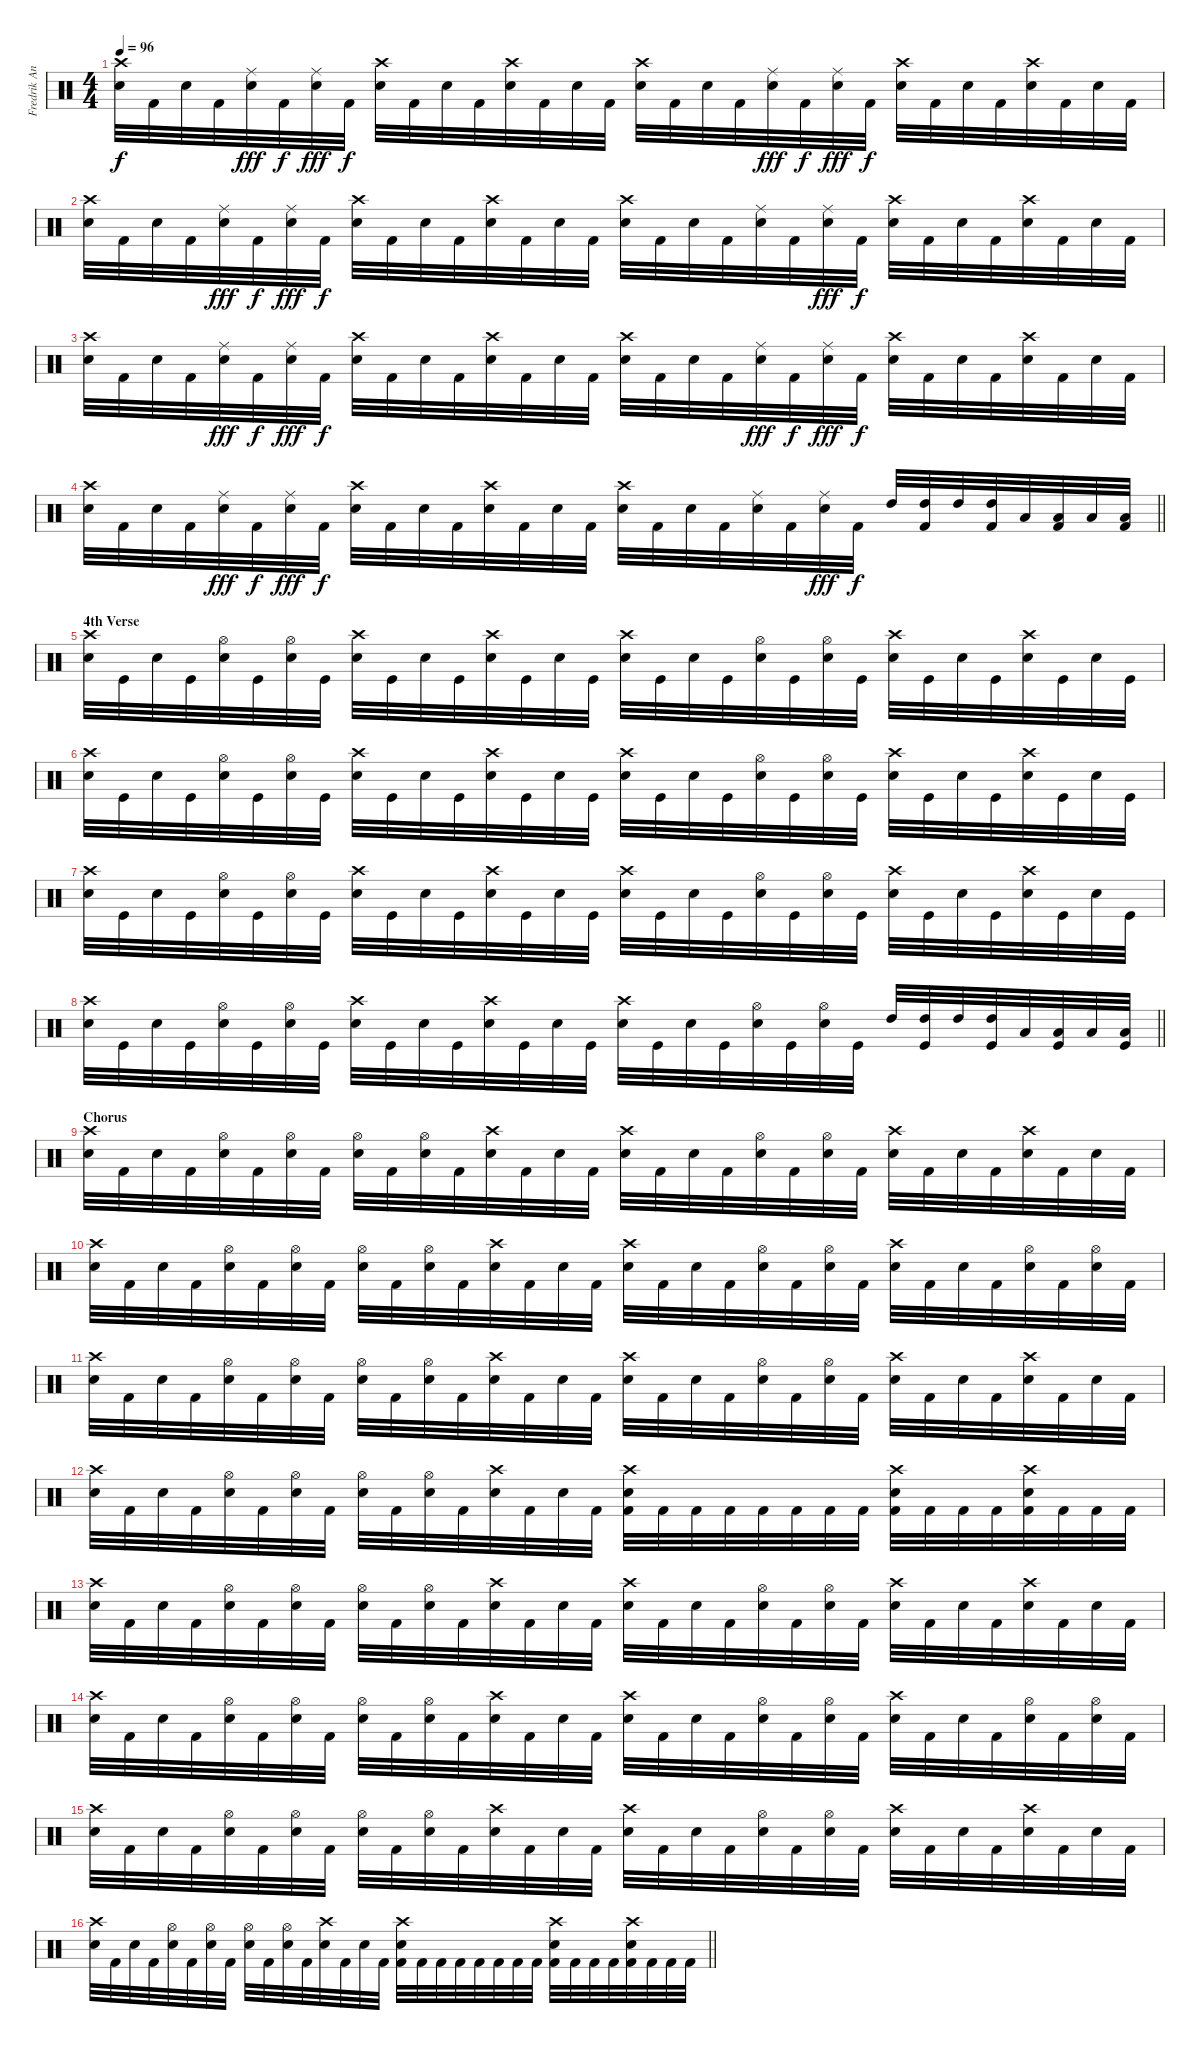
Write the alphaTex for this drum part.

\track ("Fredrik Andersson" "Fredrik An") {instrument percussion}
\staff {score}
\articulation defaults
\ts (4 4)
\tempo 96
\clef neutral
\ks c
("Crash high (hit)" "Snare (hit) 2").32{dy f} "Kick (hit) 2".32 "Snare (hit) 2".32 "Kick (hit) 2".32 ("Ride (middle)" "Snare (hit) 2").32{dy fff} "Kick (hit) 2".32{dy f} ("Ride (middle)" "Snare (hit) 2").32{dy fff} "Kick (hit) 2".32{dy f} ("Crash high (hit)" "Snare (hit) 2").32 "Kick (hit) 2".32 "Snare (hit) 2".32 "Kick (hit) 2".32 ("Crash high (hit)" "Snare (hit) 2").32 "Kick (hit) 2".32 "Snare (hit) 2".32 "Kick (hit) 2".32 ("Crash high (hit)" "Snare (hit) 2").32 "Kick (hit) 2".32 "Snare (hit) 2".32 "Kick (hit) 2".32 ("Ride (middle)" "Snare (hit) 2").32{dy fff} "Kick (hit) 2".32{dy f} ("Ride (middle)" "Snare (hit) 2").32{dy fff} "Kick (hit) 2".32{dy f} ("Crash high (hit)" "Snare (hit) 2").32 "Kick (hit) 2".32 "Snare (hit) 2".32 "Kick (hit) 2".32 ("Crash high (hit)" "Snare (hit) 2").32 "Kick (hit) 2".32 "Snare (hit) 2".32 "Kick (hit) 2".32 |
("Crash high (hit)" "Snare (hit) 2").32 "Kick (hit) 2".32 "Snare (hit) 2".32 "Kick (hit) 2".32 ("Ride (middle)" "Snare (hit) 2").32{dy fff} "Kick (hit) 2".32{dy f} ("Ride (middle)" "Snare (hit) 2").32{dy fff} "Kick (hit) 2".32{dy f} ("Crash high (hit)" "Snare (hit) 2").32 "Kick (hit) 2".32 "Snare (hit) 2".32 "Kick (hit) 2".32 ("Crash high (hit)" "Snare (hit) 2").32 "Kick (hit) 2".32 "Snare (hit) 2".32 "Kick (hit) 2".32 ("Crash high (hit)" "Snare (hit) 2").32 "Kick (hit) 2".32 "Snare (hit) 2".32 "Kick (hit) 2".32 ("Ride (middle)" "Snare (hit) 2").32 "Kick (hit) 2".32 ("Ride (middle)" "Snare (hit) 2").32{dy fff} "Kick (hit) 2".32{dy f} ("Crash high (hit)" "Snare (hit) 2").32 "Kick (hit) 2".32 "Snare (hit) 2".32 "Kick (hit) 2".32 ("Crash high (hit)" "Snare (hit) 2").32 "Kick (hit) 2".32 "Snare (hit) 2".32 "Kick (hit) 2".32 |
("Crash high (hit)" "Snare (hit) 2").32 "Kick (hit) 2".32 "Snare (hit) 2".32 "Kick (hit) 2".32 ("Ride (middle)" "Snare (hit) 2").32{dy fff} "Kick (hit) 2".32{dy f} ("Ride (middle)" "Snare (hit) 2").32{dy fff} "Kick (hit) 2".32{dy f} ("Crash high (hit)" "Snare (hit) 2").32 "Kick (hit) 2".32 "Snare (hit) 2".32 "Kick (hit) 2".32 ("Crash high (hit)" "Snare (hit) 2").32 "Kick (hit) 2".32 "Snare (hit) 2".32 "Kick (hit) 2".32 ("Crash high (hit)" "Snare (hit) 2").32 "Kick (hit) 2".32 "Snare (hit) 2".32 "Kick (hit) 2".32 ("Ride (middle)" "Snare (hit) 2").32{dy fff} "Kick (hit) 2".32{dy f} ("Ride (middle)" "Snare (hit) 2").32{dy fff} "Kick (hit) 2".32{dy f} ("Crash high (hit)" "Snare (hit) 2").32 "Kick (hit) 2".32 "Snare (hit) 2".32 "Kick (hit) 2".32 ("Crash high (hit)" "Snare (hit) 2").32 "Kick (hit) 2".32 "Snare (hit) 2".32 "Kick (hit) 2".32 |
\barLineRight lightlight
("Crash high (hit)" "Snare (hit) 2").32 "Kick (hit) 2".32 "Snare (hit) 2".32 "Kick (hit) 2".32 ("Ride (middle)" "Snare (hit) 2").32{dy fff} "Kick (hit) 2".32{dy f} ("Ride (middle)" "Snare (hit) 2").32{dy fff} "Kick (hit) 2".32{dy f} ("Crash high (hit)" "Snare (hit) 2").32 "Kick (hit) 2".32 "Snare (hit) 2".32 "Kick (hit) 2".32 ("Crash high (hit)" "Snare (hit) 2").32 "Kick (hit) 2".32 "Snare (hit) 2".32 "Kick (hit) 2".32 ("Crash high (hit)" "Snare (hit) 2").32 "Kick (hit) 2".32 "Snare (hit) 2".32 "Kick (hit) 2".32 ("Ride (middle)" "Snare (hit) 2").32 "Kick (hit) 2".32 ("Ride (middle)" "Snare (hit) 2").32{dy fff} "Kick (hit) 2".32{dy f} "High Tom (hit)".32 ("High Tom (hit)" "Kick (hit) 2").32 "High Tom (hit)".32 ("High Tom (hit)" "Kick (hit) 2").32 "Low Tom (hit)".32 ("Low Tom (hit)" "Kick (hit) 2").32 "Low Tom (hit)".32 ("Low Tom (hit)" "Kick (hit) 2").32 |
\section ("" "4th Verse")
("Crash high (hit)" "Snare (hit) 2").32 "Kick (hit)".32 "Snare (hit) 2".32 "Kick (hit)".32 ("Hi-Hat (open)" "Snare (hit) 2").32 "Kick (hit)".32 ("Hi-Hat (open)" "Snare (hit) 2").32 "Kick (hit)".32 ("Crash high (hit)" "Snare (hit) 2").32 "Kick (hit)".32 "Snare (hit) 2".32 "Kick (hit)".32 ("Crash high (hit)" "Snare (hit) 2").32 "Kick (hit)".32 "Snare (hit) 2".32 "Kick (hit)".32 ("Crash high (hit)" "Snare (hit) 2").32 "Kick (hit)".32 "Snare (hit) 2".32 "Kick (hit)".32 ("Hi-Hat (open)" "Snare (hit) 2").32 "Kick (hit)".32 ("Hi-Hat (open)" "Snare (hit) 2").32 "Kick (hit)".32 ("Crash high (hit)" "Snare (hit) 2").32 "Kick (hit)".32 "Snare (hit) 2".32 "Kick (hit)".32 ("Crash high (hit)" "Snare (hit) 2").32 "Kick (hit)".32 "Snare (hit) 2".32 "Kick (hit)".32 |
("Crash high (hit)" "Snare (hit) 2").32 "Kick (hit)".32 "Snare (hit) 2".32 "Kick (hit)".32 ("Hi-Hat (open)" "Snare (hit) 2").32 "Kick (hit)".32 ("Hi-Hat (open)" "Snare (hit) 2").32 "Kick (hit)".32 ("Crash high (hit)" "Snare (hit) 2").32 "Kick (hit)".32 "Snare (hit) 2".32 "Kick (hit)".32 ("Crash high (hit)" "Snare (hit) 2").32 "Kick (hit)".32 "Snare (hit) 2".32 "Kick (hit)".32 ("Crash high (hit)" "Snare (hit) 2").32 "Kick (hit)".32 "Snare (hit) 2".32 "Kick (hit)".32 ("Hi-Hat (open)" "Snare (hit) 2").32 "Kick (hit)".32 ("Hi-Hat (open)" "Snare (hit) 2").32 "Kick (hit)".32 ("Crash high (hit)" "Snare (hit) 2").32 "Kick (hit)".32 "Snare (hit) 2".32 "Kick (hit)".32 ("Crash high (hit)" "Snare (hit) 2").32 "Kick (hit)".32 "Snare (hit) 2".32 "Kick (hit)".32 |
("Crash high (hit)" "Snare (hit) 2").32 "Kick (hit)".32 "Snare (hit) 2".32 "Kick (hit)".32 ("Hi-Hat (open)" "Snare (hit) 2").32 "Kick (hit)".32 ("Hi-Hat (open)" "Snare (hit) 2").32 "Kick (hit)".32 ("Crash high (hit)" "Snare (hit) 2").32 "Kick (hit)".32 "Snare (hit) 2".32 "Kick (hit)".32 ("Crash high (hit)" "Snare (hit) 2").32 "Kick (hit)".32 "Snare (hit) 2".32 "Kick (hit)".32 ("Crash high (hit)" "Snare (hit) 2").32 "Kick (hit)".32 "Snare (hit) 2".32 "Kick (hit)".32 ("Hi-Hat (open)" "Snare (hit) 2").32 "Kick (hit)".32 ("Hi-Hat (open)" "Snare (hit) 2").32 "Kick (hit)".32 ("Crash high (hit)" "Snare (hit) 2").32 "Kick (hit)".32 "Snare (hit) 2".32 "Kick (hit)".32 ("Crash high (hit)" "Snare (hit) 2").32 "Kick (hit)".32 "Snare (hit) 2".32 "Kick (hit)".32 |
\barLineRight lightlight
("Crash high (hit)" "Snare (hit) 2").32 "Kick (hit)".32 "Snare (hit) 2".32 "Kick (hit)".32 ("Hi-Hat (open)" "Snare (hit) 2").32 "Kick (hit)".32 ("Hi-Hat (open)" "Snare (hit) 2").32 "Kick (hit)".32 ("Crash high (hit)" "Snare (hit) 2").32 "Kick (hit)".32 "Snare (hit) 2".32 "Kick (hit)".32 ("Crash high (hit)" "Snare (hit) 2").32 "Kick (hit)".32 "Snare (hit) 2".32 "Kick (hit)".32 ("Crash high (hit)" "Snare (hit) 2").32 "Kick (hit)".32 "Snare (hit) 2".32 "Kick (hit)".32 ("Hi-Hat (open)" "Snare (hit) 2").32 "Kick (hit)".32 ("Hi-Hat (open)" "Snare (hit) 2").32 "Kick (hit)".32 "High Tom (hit)".32 ("High Tom (hit)" "Kick (hit)").32 "High Tom (hit)".32 ("High Tom (hit)" "Kick (hit)").32 "Low Tom (hit)".32 ("Low Tom (hit)" "Kick (hit)").32 "Low Tom (hit)".32 ("Low Tom (hit)" "Kick (hit)").32 |
\section ("" "Chorus")
("Crash high (hit)" "Snare (hit) 2").32 "Kick (hit) 2".32 "Snare (hit) 2".32 "Kick (hit) 2".32 ("Hi-Hat (open)" "Snare (hit) 2").32 "Kick (hit) 2".32 ("Hi-Hat (open)" "Snare (hit) 2").32 "Kick (hit) 2".32 ("Hi-Hat (open)" "Snare (hit) 2").32 "Kick (hit) 2".32 ("Hi-Hat (open)" "Snare (hit) 2").32 "Kick (hit) 2".32 ("Crash high (hit)" "Snare (hit) 2").32 "Kick (hit) 2".32 "Snare (hit) 2".32 "Kick (hit) 2".32 ("Crash high (hit)" "Snare (hit) 2").32 "Kick (hit) 2".32 "Snare (hit) 2".32 "Kick (hit) 2".32 ("Hi-Hat (open)" "Snare (hit) 2").32 "Kick (hit) 2".32 ("Hi-Hat (open)" "Snare (hit) 2").32 "Kick (hit) 2".32 ("Crash high (hit)" "Snare (hit) 2").32 "Kick (hit) 2".32 "Snare (hit) 2".32 "Kick (hit) 2".32 ("Crash high (hit)" "Snare (hit) 2").32 "Kick (hit) 2".32 "Snare (hit) 2".32 "Kick (hit) 2".32 |
("Crash high (hit)" "Snare (hit) 2").32 "Kick (hit) 2".32 "Snare (hit) 2".32 "Kick (hit) 2".32 ("Hi-Hat (open)" "Snare (hit) 2").32 "Kick (hit) 2".32 ("Hi-Hat (open)" "Snare (hit) 2").32 "Kick (hit) 2".32 ("Hi-Hat (open)" "Snare (hit) 2").32 "Kick (hit) 2".32 ("Hi-Hat (open)" "Snare (hit) 2").32 "Kick (hit) 2".32 ("Crash high (hit)" "Snare (hit) 2").32 "Kick (hit) 2".32 "Snare (hit) 2".32 "Kick (hit) 2".32 ("Crash high (hit)" "Snare (hit) 2").32 "Kick (hit) 2".32 "Snare (hit) 2".32 "Kick (hit) 2".32 ("Hi-Hat (open)" "Snare (hit) 2").32 "Kick (hit) 2".32 ("Hi-Hat (open)" "Snare (hit) 2").32 "Kick (hit) 2".32 ("Crash high (hit)" "Snare (hit) 2").32 "Kick (hit) 2".32 "Snare (hit) 2".32 "Kick (hit) 2".32 ("Hi-Hat (open)" "Snare (hit) 2").32 "Kick (hit) 2".32 ("Hi-Hat (open)" "Snare (hit) 2").32 "Kick (hit) 2".32 |
("Crash high (hit)" "Snare (hit) 2").32 "Kick (hit) 2".32 "Snare (hit) 2".32 "Kick (hit) 2".32 ("Hi-Hat (open)" "Snare (hit) 2").32 "Kick (hit) 2".32 ("Hi-Hat (open)" "Snare (hit) 2").32 "Kick (hit) 2".32 ("Hi-Hat (open)" "Snare (hit) 2").32 "Kick (hit) 2".32 ("Hi-Hat (open)" "Snare (hit) 2").32 "Kick (hit) 2".32 ("Crash high (hit)" "Snare (hit) 2").32 "Kick (hit) 2".32 "Snare (hit) 2".32 "Kick (hit) 2".32 ("Crash high (hit)" "Snare (hit) 2").32 "Kick (hit) 2".32 "Snare (hit) 2".32 "Kick (hit) 2".32 ("Hi-Hat (open)" "Snare (hit) 2").32 "Kick (hit) 2".32 ("Hi-Hat (open)" "Snare (hit) 2").32 "Kick (hit) 2".32 ("Crash high (hit)" "Snare (hit) 2").32 "Kick (hit) 2".32 "Snare (hit) 2".32 "Kick (hit) 2".32 ("Crash high (hit)" "Snare (hit) 2").32 "Kick (hit) 2".32 "Snare (hit) 2".32 "Kick (hit) 2".32 |
("Crash high (hit)" "Snare (hit) 2").32 "Kick (hit) 2".32 "Snare (hit) 2".32 "Kick (hit) 2".32 ("Hi-Hat (open)" "Snare (hit) 2").32 "Kick (hit) 2".32 ("Hi-Hat (open)" "Snare (hit) 2").32 "Kick (hit) 2".32 ("Hi-Hat (open)" "Snare (hit) 2").32 "Kick (hit) 2".32 ("Hi-Hat (open)" "Snare (hit) 2").32 "Kick (hit) 2".32 ("Crash high (hit)" "Snare (hit) 2").32 "Kick (hit) 2".32 "Snare (hit) 2".32 "Kick (hit) 2".32 ("Crash high (hit)" "Snare (hit) 2" "Kick (hit) 2").32 "Kick (hit) 2".32 "Kick (hit) 2".32 "Kick (hit) 2".32 "Kick (hit) 2".32 "Kick (hit) 2".32 "Kick (hit) 2".32 "Kick (hit) 2".32 ("Crash high (hit)" "Snare (hit) 2" "Kick (hit) 2").32 "Kick (hit) 2".32 "Kick (hit) 2".32 "Kick (hit) 2".32 ("Crash high (hit)" "Snare (hit) 2" "Kick (hit) 2").32 "Kick (hit) 2".32 "Kick (hit) 2".32 "Kick (hit) 2".32 |
("Crash high (hit)" "Snare (hit) 2").32 "Kick (hit) 2".32 "Snare (hit) 2".32 "Kick (hit) 2".32 ("Hi-Hat (open)" "Snare (hit) 2").32 "Kick (hit) 2".32 ("Hi-Hat (open)" "Snare (hit) 2").32 "Kick (hit) 2".32 ("Hi-Hat (open)" "Snare (hit) 2").32 "Kick (hit) 2".32 ("Hi-Hat (open)" "Snare (hit) 2").32 "Kick (hit) 2".32 ("Crash high (hit)" "Snare (hit) 2").32 "Kick (hit) 2".32 "Snare (hit) 2".32 "Kick (hit) 2".32 ("Crash high (hit)" "Snare (hit) 2").32 "Kick (hit) 2".32 "Snare (hit) 2".32 "Kick (hit) 2".32 ("Hi-Hat (open)" "Snare (hit) 2").32 "Kick (hit) 2".32 ("Hi-Hat (open)" "Snare (hit) 2").32 "Kick (hit) 2".32 ("Crash high (hit)" "Snare (hit) 2").32 "Kick (hit) 2".32 "Snare (hit) 2".32 "Kick (hit) 2".32 ("Crash high (hit)" "Snare (hit) 2").32 "Kick (hit) 2".32 "Snare (hit) 2".32 "Kick (hit) 2".32 |
("Crash high (hit)" "Snare (hit) 2").32 "Kick (hit) 2".32 "Snare (hit) 2".32 "Kick (hit) 2".32 ("Hi-Hat (open)" "Snare (hit) 2").32 "Kick (hit) 2".32 ("Hi-Hat (open)" "Snare (hit) 2").32 "Kick (hit) 2".32 ("Hi-Hat (open)" "Snare (hit) 2").32 "Kick (hit) 2".32 ("Hi-Hat (open)" "Snare (hit) 2").32 "Kick (hit) 2".32 ("Crash high (hit)" "Snare (hit) 2").32 "Kick (hit) 2".32 "Snare (hit) 2".32 "Kick (hit) 2".32 ("Crash high (hit)" "Snare (hit) 2").32 "Kick (hit) 2".32 "Snare (hit) 2".32 "Kick (hit) 2".32 ("Hi-Hat (open)" "Snare (hit) 2").32 "Kick (hit) 2".32 ("Hi-Hat (open)" "Snare (hit) 2").32 "Kick (hit) 2".32 ("Crash high (hit)" "Snare (hit) 2").32 "Kick (hit) 2".32 "Snare (hit) 2".32 "Kick (hit) 2".32 ("Hi-Hat (open)" "Snare (hit) 2").32 "Kick (hit) 2".32 ("Hi-Hat (open)" "Snare (hit) 2").32 "Kick (hit) 2".32 |
("Crash high (hit)" "Snare (hit) 2").32 "Kick (hit) 2".32 "Snare (hit) 2".32 "Kick (hit) 2".32 ("Hi-Hat (open)" "Snare (hit) 2").32 "Kick (hit) 2".32 ("Hi-Hat (open)" "Snare (hit) 2").32 "Kick (hit) 2".32 ("Hi-Hat (open)" "Snare (hit) 2").32 "Kick (hit) 2".32 ("Hi-Hat (open)" "Snare (hit) 2").32 "Kick (hit) 2".32 ("Crash high (hit)" "Snare (hit) 2").32 "Kick (hit) 2".32 "Snare (hit) 2".32 "Kick (hit) 2".32 ("Crash high (hit)" "Snare (hit) 2").32 "Kick (hit) 2".32 "Snare (hit) 2".32 "Kick (hit) 2".32 ("Hi-Hat (open)" "Snare (hit) 2").32 "Kick (hit) 2".32 ("Hi-Hat (open)" "Snare (hit) 2").32 "Kick (hit) 2".32 ("Crash high (hit)" "Snare (hit) 2").32 "Kick (hit) 2".32 "Snare (hit) 2".32 "Kick (hit) 2".32 ("Crash high (hit)" "Snare (hit) 2").32 "Kick (hit) 2".32 "Snare (hit) 2".32 "Kick (hit) 2".32 |
\barLineRight lightlight
("Crash high (hit)" "Snare (hit) 2").32 "Kick (hit) 2".32 "Snare (hit) 2".32 "Kick (hit) 2".32 ("Hi-Hat (open)" "Snare (hit) 2").32 "Kick (hit) 2".32 ("Hi-Hat (open)" "Snare (hit) 2").32 "Kick (hit) 2".32 ("Hi-Hat (open)" "Snare (hit) 2").32 "Kick (hit) 2".32 ("Hi-Hat (open)" "Snare (hit) 2").32 "Kick (hit) 2".32 ("Crash high (hit)" "Snare (hit) 2").32 "Kick (hit) 2".32 "Snare (hit) 2".32 "Kick (hit) 2".32 ("Crash high (hit)" "Snare (hit) 2" "Kick (hit) 2").32 "Kick (hit) 2".32 "Kick (hit) 2".32 "Kick (hit) 2".32 "Kick (hit) 2".32 "Kick (hit) 2".32 "Kick (hit) 2".32 "Kick (hit) 2".32 ("Crash high (hit)" "Snare (hit) 2" "Kick (hit) 2").32 "Kick (hit) 2".32 "Kick (hit) 2".32 "Kick (hit) 2".32 ("Crash high (hit)" "Snare (hit) 2" "Kick (hit) 2").32 "Kick (hit) 2".32 "Kick (hit) 2".32 "Kick (hit) 2".32
